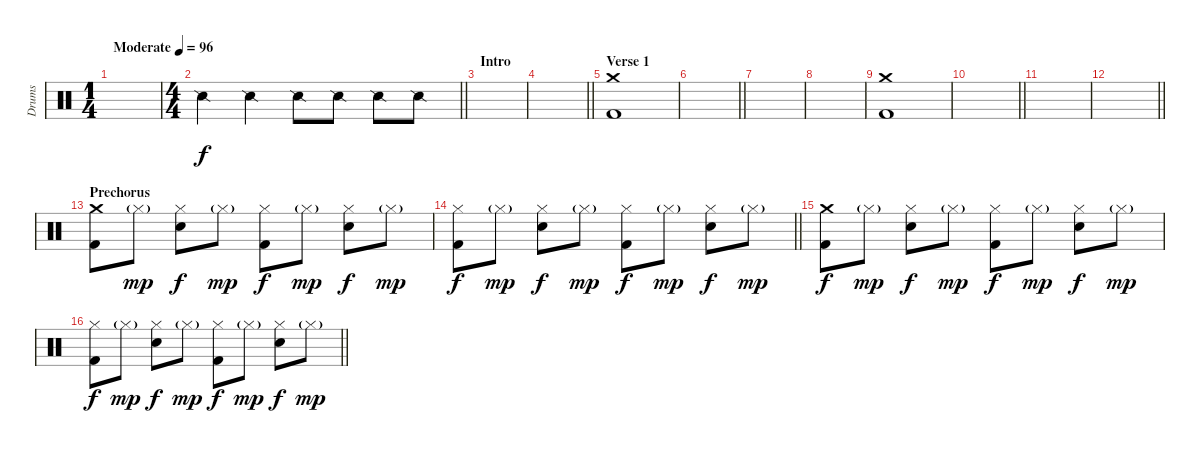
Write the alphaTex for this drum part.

\track ("Drums" "Drums") {instrument percussion}
\staff {score}
\articulation defaults
\ts (1 4)
\tempo (96 "Moderate")
\clef neutral
\ks c
|
\ts (4 4)
\barLineRight lightlight "Snare (side stick) 2".4 "Snare (side stick) 2".4 "Snare (side stick) 2".8 "Snare (side stick) 2".8 "Snare (side stick) 2".8 "Snare (side stick) 2".8
|
\section ("" "Intro")
|
\barLineRight lightlight
|
\section ("" "Verse 1")
("Crash medium (hit)" "Kick (hit) 2").1 |
\barLineRight lightlight
|
|
|
("Crash medium (hit)" "Kick (hit) 2").1 |
\barLineRight lightlight
|
|
\barLineRight lightlight
|
\section ("" "Prechorus")
("Crash medium (hit)" "Kick (hit) 2").8 "Hi-Hat (closed)"{g}.8{dy mp} ("Hi-Hat (closed)" "Snare (hit) 2").8{dy f} "Hi-Hat (closed)"{g}.8{dy mp} ("Hi-Hat (closed)" "Kick (hit) 2").8{dy f} "Hi-Hat (closed)"{g}.8{dy mp} ("Hi-Hat (closed)" "Snare (hit) 2").8{dy f} "Hi-Hat (closed)"{g}.8{dy mp} |
\barLineRight lightlight
("Hi-Hat (closed)" "Kick (hit) 2").8{dy f} "Hi-Hat (closed)"{g}.8{dy mp} ("Hi-Hat (closed)" "Snare (hit) 2").8{dy f} "Hi-Hat (closed)"{g}.8{dy mp} ("Hi-Hat (closed)" "Kick (hit) 2").8{dy f} "Hi-Hat (closed)"{g}.8{dy mp} ("Hi-Hat (closed)" "Snare (hit) 2").8{dy f} "Hi-Hat (closed)"{g}.8{dy mp} |
("Crash medium (hit)" "Kick (hit) 2").8{dy f} "Hi-Hat (closed)"{g}.8{dy mp} ("Hi-Hat (closed)" "Snare (hit) 2").8{dy f} "Hi-Hat (closed)"{g}.8{dy mp} ("Hi-Hat (closed)" "Kick (hit) 2").8{dy f} "Hi-Hat (closed)"{g}.8{dy mp} ("Hi-Hat (closed)" "Snare (hit) 2").8{dy f} "Hi-Hat (closed)"{g}.8{dy mp} |
\barLineRight lightlight
("Hi-Hat (closed)" "Kick (hit) 2").8{dy f} "Hi-Hat (closed)"{g}.8{dy mp} ("Hi-Hat (closed)" "Snare (hit) 2").8{dy f} "Hi-Hat (closed)"{g}.8{dy mp} ("Hi-Hat (closed)" "Kick (hit) 2").8{dy f} "Hi-Hat (closed)"{g}.8{dy mp} ("Hi-Hat (closed)" "Snare (hit) 2").8{dy f} "Hi-Hat (closed)"{g}.8{dy mp}
